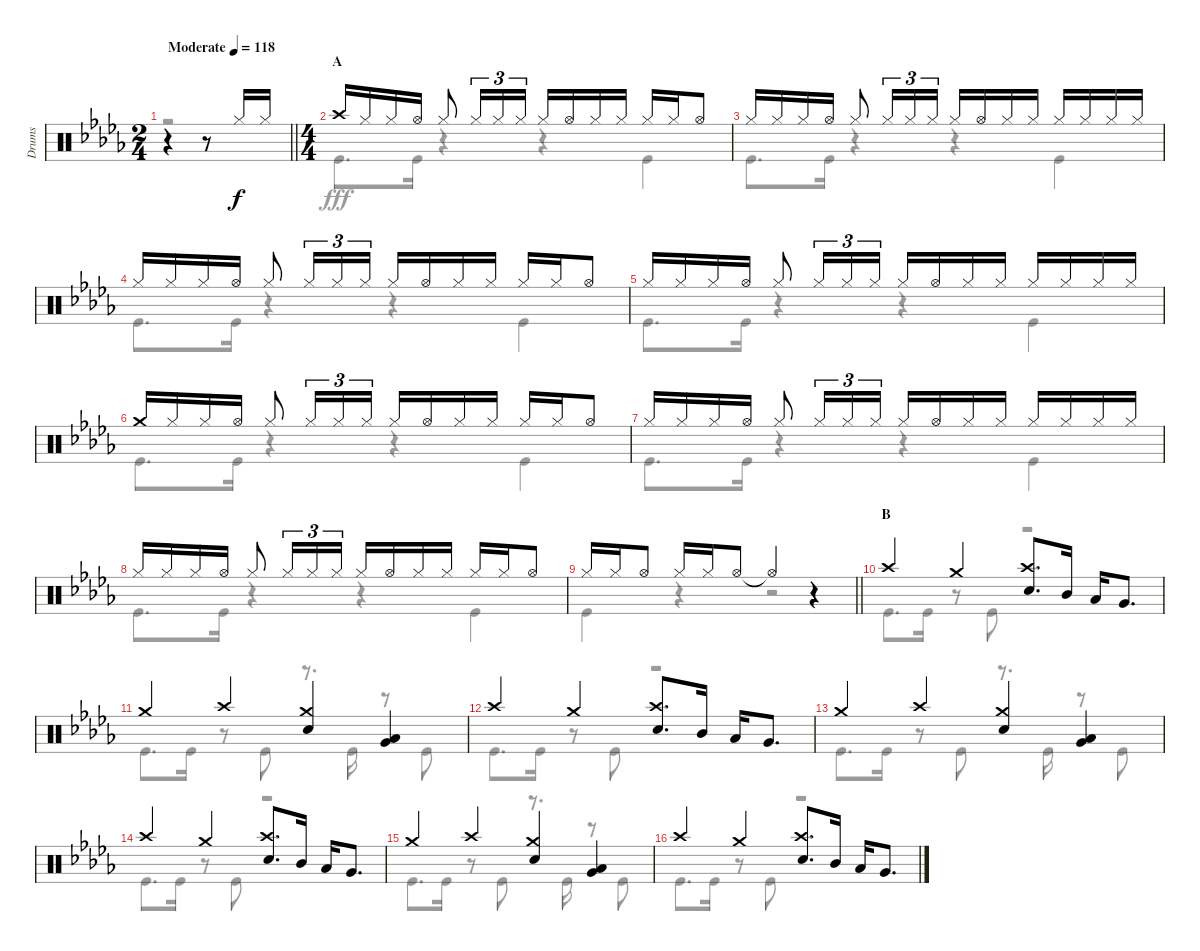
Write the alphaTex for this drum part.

\track ("Drums" "Drums") {instrument percussion}
\staff {score}
\articulation defaults
\voice
\ts (2 4)
\tempo (118 "Moderate")
\clef neutral
\barLineRight lightlight
\ks db
r.4{dy f} r.8 "Hi-Hat (closed)".16 "Hi-Hat (closed)".16 |
\ts (4 4)
\section ("" "A")
"Crash high (hit)".16 "Hi-Hat (closed)".16 "Hi-Hat (closed)".16 "Hi-Hat (open)".16 "Hi-Hat (closed)".8 "Hi-Hat (closed)".16{tu (3 2)} "Hi-Hat (closed)".16{tu (3 2)} "Hi-Hat (closed)".16{tu (3 2)} "Hi-Hat (closed)".16 "Hi-Hat (open)".16 "Hi-Hat (closed)".16 "Hi-Hat (closed)".16 "Hi-Hat (closed)".16 "Hi-Hat (closed)".16 "Hi-Hat (open)".8 |
"Hi-Hat (closed)".16 "Hi-Hat (closed)".16 "Hi-Hat (closed)".16 "Hi-Hat (open)".16 "Hi-Hat (closed)".8 "Hi-Hat (closed)".16{tu (3 2)} "Hi-Hat (closed)".16{tu (3 2)} "Hi-Hat (closed)".16{tu (3 2)} "Hi-Hat (closed)".16 "Hi-Hat (open)".16 "Hi-Hat (closed)".16 "Hi-Hat (closed)".16 "Hi-Hat (closed)".16 "Hi-Hat (closed)".16 "Hi-Hat (closed)".16 "Hi-Hat (closed)".16 |
"Hi-Hat (closed)".16 "Hi-Hat (closed)".16 "Hi-Hat (closed)".16 "Hi-Hat (open)".16 "Hi-Hat (closed)".8 "Hi-Hat (closed)".16{tu (3 2)} "Hi-Hat (closed)".16{tu (3 2)} "Hi-Hat (closed)".16{tu (3 2)} "Hi-Hat (closed)".16 "Hi-Hat (open)".16 "Hi-Hat (closed)".16 "Hi-Hat (closed)".16 "Hi-Hat (closed)".16 "Hi-Hat (closed)".16 "Hi-Hat (open)".8 |
"Hi-Hat (closed)".16 "Hi-Hat (closed)".16 "Hi-Hat (closed)".16 "Hi-Hat (open)".16 "Hi-Hat (closed)".8 "Hi-Hat (closed)".16{tu (3 2)} "Hi-Hat (closed)".16{tu (3 2)} "Hi-Hat (closed)".16{tu (3 2)} "Hi-Hat (closed)".16 "Hi-Hat (open)".16 "Hi-Hat (closed)".16 "Hi-Hat (closed)".16 "Hi-Hat (closed)".16 "Hi-Hat (closed)".16 "Hi-Hat (closed)".16 "Hi-Hat (closed)".16 |
"Crash medium (hit)".16 "Hi-Hat (closed)".16 "Hi-Hat (closed)".16 "Hi-Hat (open)".16 "Hi-Hat (closed)".8 "Hi-Hat (closed)".16{tu (3 2)} "Hi-Hat (closed)".16{tu (3 2)} "Hi-Hat (closed)".16{tu (3 2)} "Hi-Hat (closed)".16 "Hi-Hat (open)".16 "Hi-Hat (closed)".16 "Hi-Hat (closed)".16 "Hi-Hat (closed)".16 "Hi-Hat (closed)".16 "Hi-Hat (open)".8 |
"Hi-Hat (closed)".16 "Hi-Hat (closed)".16 "Hi-Hat (closed)".16 "Hi-Hat (open)".16 "Hi-Hat (closed)".8 "Hi-Hat (closed)".16{tu (3 2)} "Hi-Hat (closed)".16{tu (3 2)} "Hi-Hat (closed)".16{tu (3 2)} "Hi-Hat (closed)".16 "Hi-Hat (open)".16 "Hi-Hat (closed)".16 "Hi-Hat (closed)".16 "Hi-Hat (closed)".16 "Hi-Hat (closed)".16 "Hi-Hat (closed)".16 "Hi-Hat (closed)".16 |
"Hi-Hat (closed)".16 "Hi-Hat (closed)".16 "Hi-Hat (closed)".16 "Hi-Hat (open)".16 "Hi-Hat (closed)".8 "Hi-Hat (closed)".16{tu (3 2)} "Hi-Hat (closed)".16{tu (3 2)} "Hi-Hat (closed)".16{tu (3 2)} "Hi-Hat (closed)".16 "Hi-Hat (open)".16 "Hi-Hat (closed)".16 "Hi-Hat (closed)".16 "Hi-Hat (closed)".16 "Hi-Hat (closed)".16 "Hi-Hat (open)".8 |
\barLineRight lightlight "Hi-Hat (closed)".16 "Hi-Hat (closed)".16 "Hi-Hat (open)".8 "Hi-Hat (closed)".16 "Hi-Hat (closed)".16 "Hi-Hat (open)".8 "Hi-Hat (open)"{t}.4
r.4 |
\section ("" "B")
"Crash high (hit)".4 "Crash medium (hit)".4 ("Crash high (hit)" "Snare (hit) 2").8{d} "Mid Tom (hit)".16 "Low Tom (hit)".16 "Very Low Tom (hit)".8{d} |
"Crash medium (hit)".4 "Crash high (hit)".4 ("Crash medium (hit)" "Snare (hit) 2").4 ("Low Tom (hit)" "Very Low Tom (hit)").4 |
"Crash high (hit)".4 "Crash medium (hit)".4 ("Crash high (hit)" "Snare (hit) 2").8{d} "Mid Tom (hit)".16 "Low Tom (hit)".16 "Very Low Tom (hit)".8{d} |
"Crash medium (hit)".4 "Crash high (hit)".4 ("Crash medium (hit)" "Snare (hit) 2").4 ("Low Tom (hit)" "Very Low Tom (hit)").4 |
"Crash high (hit)".4 "Crash medium (hit)".4 ("Crash high (hit)" "Snare (hit) 2").8{d} "Mid Tom (hit)".16 "Low Tom (hit)".16 "Very Low Tom (hit)".8{d} |
"Crash medium (hit)".4 "Crash high (hit)".4 ("Crash medium (hit)" "Snare (hit) 2").4 ("Low Tom (hit)" "Very Low Tom (hit)").4 |
"Crash high (hit)".4 "Crash medium (hit)".4 ("Crash high (hit)" "Snare (hit) 2").8{d} "Mid Tom (hit)".16 "Low Tom (hit)".16 "Very Low Tom (hit)".8{d}
\voice
\clef neutral
\ottava regular
\simile none
\barLineRight lightlight
\ks db
r.2{dy fff} |
"Kick (hit)".8{d} "Kick (hit)".16 r.4 r.4 "Kick (hit)".4 |
"Kick (hit)".8{d} "Kick (hit)".16 r.4 r.4 "Kick (hit)".4 |
"Kick (hit)".8{d} "Kick (hit)".16 r.4 r.4 "Kick (hit)".4 |
"Kick (hit)".8{d} "Kick (hit)".16 r.4 r.4 "Kick (hit)".4 |
"Kick (hit)".8{d} "Kick (hit)".16 r.4 r.4 "Kick (hit)".4 |
"Kick (hit)".8{d} "Kick (hit)".16 r.4 r.4 "Kick (hit)".4 |
"Kick (hit)".8{d} "Kick (hit)".16 r.4 r.4 "Kick (hit)".4 |
\barLineRight lightlight "Kick (hit)".4
r.4 r.2 |
"Kick (hit)".8{d} "Kick (hit)".16 r.8 "Kick (hit)".8 r.2 |
"Kick (hit)".8{d} "Kick (hit)".16 r.8 "Kick (hit)".8 r.8{d} "Kick (hit)".16 r.8 "Kick (hit)".8 |
"Kick (hit)".8{d} "Kick (hit)".16 r.8 "Kick (hit)".8 r.2 |
"Kick (hit)".8{d} "Kick (hit)".16 r.8 "Kick (hit)".8 r.8{d} "Kick (hit)".16 r.8 "Kick (hit)".8 |
"Kick (hit)".8{d} "Kick (hit)".16 r.8 "Kick (hit)".8 r.2 |
"Kick (hit)".8{d} "Kick (hit)".16 r.8 "Kick (hit)".8 r.8{d} "Kick (hit)".16 r.8 "Kick (hit)".8 |
"Kick (hit)".8{d} "Kick (hit)".16 r.8 "Kick (hit)".8 r.2
